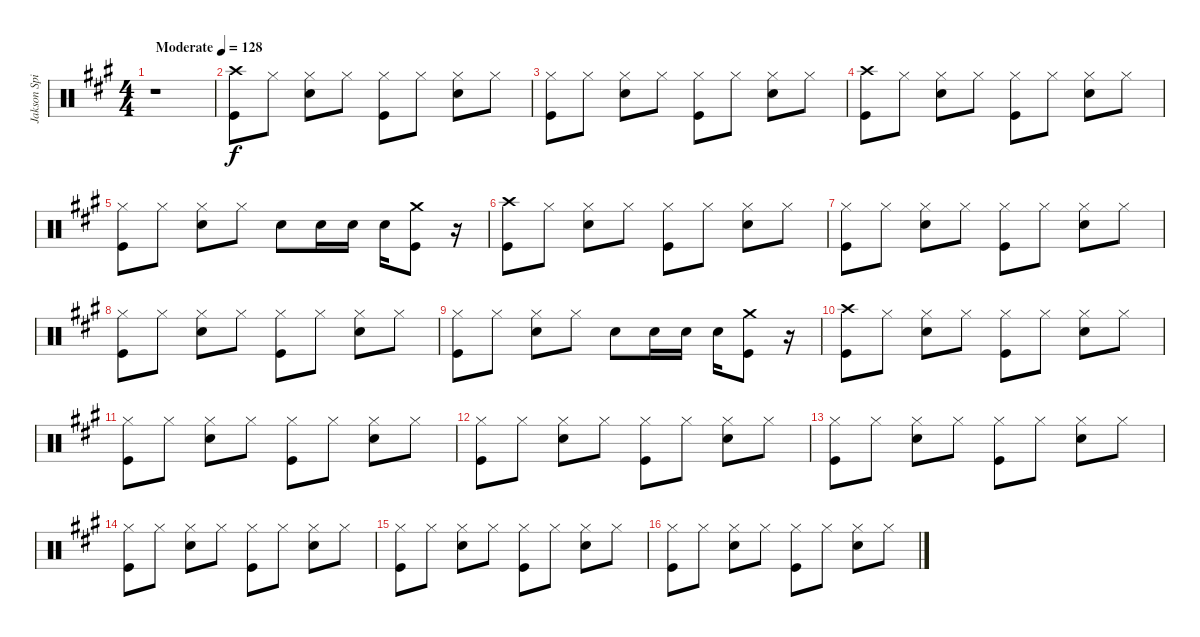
\track ("Jakson Spires Drums" "Jakson Spi") {instrument percussion}
\staff {score}
\articulation defaults
\ts (4 4)
\tempo (128 "Moderate")
\clef neutral
\ks a
r.1{dy f} |
("Crash high (hit)" "Kick (hit)").8 "Hi-Hat (closed)".8 ("Hi-Hat (closed)" "Snare (hit) 2").8 "Hi-Hat (closed)".8 ("Hi-Hat (closed)" "Kick (hit)").8 "Hi-Hat (closed)".8 ("Hi-Hat (closed)" "Snare (hit) 2").8 "Hi-Hat (closed)".8 |
("Hi-Hat (closed)" "Kick (hit)").8 "Hi-Hat (closed)".8 ("Hi-Hat (closed)" "Snare (hit) 2").8 "Hi-Hat (closed)".8 ("Hi-Hat (closed)" "Kick (hit)").8 "Hi-Hat (closed)".8 ("Hi-Hat (closed)" "Snare (hit) 2").8 "Hi-Hat (closed)".8 |
("Crash high (hit)" "Kick (hit)").8 "Hi-Hat (closed)".8 ("Hi-Hat (closed)" "Snare (hit) 2").8 "Hi-Hat (closed)".8 ("Hi-Hat (closed)" "Kick (hit)").8 "Hi-Hat (closed)".8 ("Hi-Hat (closed)" "Snare (hit) 2").8 "Hi-Hat (closed)".8 |
("Hi-Hat (closed)" "Kick (hit)").8 "Hi-Hat (closed)".8 ("Hi-Hat (closed)" "Snare (hit) 2").8 "Hi-Hat (closed)".8 "Snare (hit) 2".8 "Snare (hit) 2".16 "Snare (hit) 2".16 "Snare (hit) 2".16 ("Crash medium (hit)" "Kick (hit)").8 r.16 |
("Crash high (hit)" "Kick (hit)").8 "Hi-Hat (closed)".8 ("Hi-Hat (closed)" "Snare (hit) 2").8 "Hi-Hat (closed)".8 ("Hi-Hat (closed)" "Kick (hit)").8 "Hi-Hat (closed)".8 ("Hi-Hat (closed)" "Snare (hit) 2").8 "Hi-Hat (closed)".8 |
("Hi-Hat (closed)" "Kick (hit)").8 "Hi-Hat (closed)".8 ("Hi-Hat (closed)" "Snare (hit) 2").8 "Hi-Hat (closed)".8 ("Hi-Hat (closed)" "Kick (hit)").8 "Hi-Hat (closed)".8 ("Hi-Hat (closed)" "Snare (hit) 2").8 "Hi-Hat (closed)".8 |
("Hi-Hat (closed)" "Kick (hit)").8 "Hi-Hat (closed)".8 ("Hi-Hat (closed)" "Snare (hit) 2").8 "Hi-Hat (closed)".8 ("Hi-Hat (closed)" "Kick (hit)").8 "Hi-Hat (closed)".8 ("Hi-Hat (closed)" "Snare (hit) 2").8 "Hi-Hat (closed)".8 |
("Hi-Hat (closed)" "Kick (hit)").8 "Hi-Hat (closed)".8 ("Hi-Hat (closed)" "Snare (hit) 2").8 "Hi-Hat (closed)".8 "Snare (hit) 2".8 "Snare (hit) 2".16 "Snare (hit) 2".16 "Snare (hit) 2".16 ("Crash medium (hit)" "Kick (hit)").8 r.16 |
("Crash high (hit)" "Kick (hit)").8 "Hi-Hat (closed)".8 ("Hi-Hat (closed)" "Snare (hit) 2").8 "Hi-Hat (closed)".8 ("Hi-Hat (closed)" "Kick (hit)").8 "Hi-Hat (closed)".8 ("Hi-Hat (closed)" "Snare (hit) 2").8 "Hi-Hat (closed)".8 |
("Hi-Hat (closed)" "Kick (hit)").8 "Hi-Hat (closed)".8 ("Hi-Hat (closed)" "Snare (hit) 2").8 "Hi-Hat (closed)".8 ("Hi-Hat (closed)" "Kick (hit)").8 "Hi-Hat (closed)".8 ("Hi-Hat (closed)" "Snare (hit) 2").8 "Hi-Hat (closed)".8 |
("Hi-Hat (closed)" "Kick (hit)").8 "Hi-Hat (closed)".8 ("Hi-Hat (closed)" "Snare (hit) 2").8 "Hi-Hat (closed)".8 ("Hi-Hat (closed)" "Kick (hit)").8 "Hi-Hat (closed)".8 ("Hi-Hat (closed)" "Snare (hit) 2").8 "Hi-Hat (closed)".8 |
("Hi-Hat (closed)" "Kick (hit)").8 "Hi-Hat (closed)".8 ("Hi-Hat (closed)" "Snare (hit) 2").8 "Hi-Hat (closed)".8 ("Hi-Hat (closed)" "Kick (hit)").8 "Hi-Hat (closed)".8 ("Hi-Hat (closed)" "Snare (hit) 2").8 "Hi-Hat (closed)".8 |
("Hi-Hat (closed)" "Kick (hit)").8 "Hi-Hat (closed)".8 ("Hi-Hat (closed)" "Snare (hit) 2").8 "Hi-Hat (closed)".8 ("Hi-Hat (closed)" "Kick (hit)").8 "Hi-Hat (closed)".8 ("Hi-Hat (closed)" "Snare (hit) 2").8 "Hi-Hat (closed)".8 |
("Hi-Hat (closed)" "Kick (hit)").8 "Hi-Hat (closed)".8 ("Hi-Hat (closed)" "Snare (hit) 2").8 "Hi-Hat (closed)".8 ("Hi-Hat (closed)" "Kick (hit)").8 "Hi-Hat (closed)".8 ("Hi-Hat (closed)" "Snare (hit) 2").8 "Hi-Hat (closed)".8 |
("Hi-Hat (closed)" "Kick (hit)").8 "Hi-Hat (closed)".8 ("Hi-Hat (closed)" "Snare (hit) 2").8 "Hi-Hat (closed)".8 ("Hi-Hat (closed)" "Kick (hit)").8 "Hi-Hat (closed)".8 ("Hi-Hat (closed)" "Snare (hit) 2").8 "Hi-Hat (closed)".8
